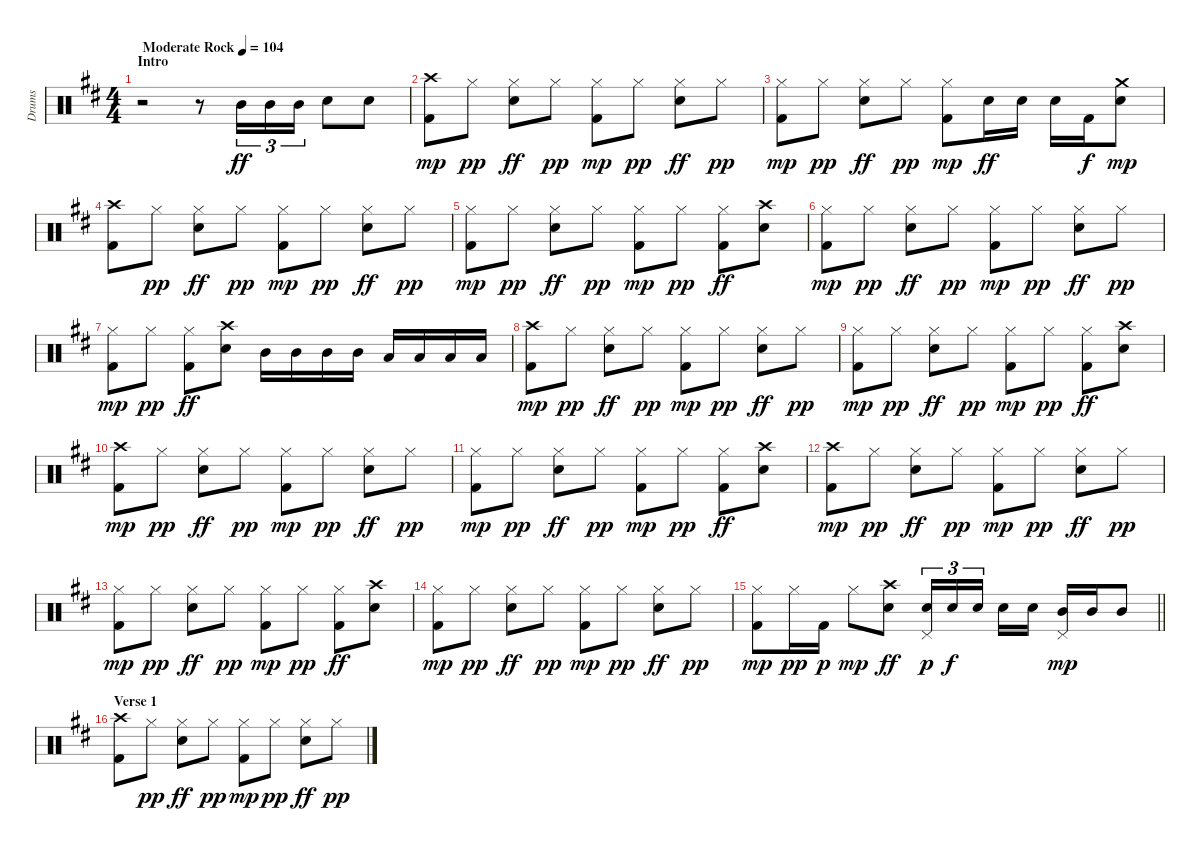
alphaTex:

\track ("Drums" "Drums") {instrument percussion}
\staff {score}
\articulation defaults
\ts (4 4)
\section ("" "Intro")
\tempo (104 "Moderate Rock")
\clef neutral
\ks bminor
r.2{dy ff} r.8 "Mid Tom (hit)".16{tu (3 2)} "Mid Tom (hit)".16{tu (3 2)} "Mid Tom (hit)".16{tu (3 2)} "Electric Snare (hit)".8 "Electric Snare (hit)".8 |
("Crash high (hit)" "Kick (hit) 2").8{dy mp} "Hi-Hat (closed)".8{dy pp} ("Hi-Hat (closed)" "Electric Snare (hit)").8{dy ff} "Hi-Hat (closed)".8{dy pp} ("Hi-Hat (closed)" "Kick (hit) 2").8{dy mp} "Hi-Hat (closed)".8{dy pp} ("Hi-Hat (closed)" "Electric Snare (hit)").8{dy ff} "Hi-Hat (closed)".8{dy pp} |
("Hi-Hat (closed)" "Kick (hit) 2").8{dy mp} "Hi-Hat (closed)".8{dy pp} ("Hi-Hat (closed)" "Electric Snare (hit)").8{dy ff} "Hi-Hat (closed)".8{dy pp} ("Hi-Hat (closed)" "Kick (hit) 2").8{dy mp} "Electric Snare (hit)".16{dy ff} "Electric Snare (hit)".16 "Electric Snare (hit)".16 "Kick (hit) 2".16{dy f} ("Electric Snare (hit)" "Crash medium (hit)").8{dy mp} |
("Crash high (hit)" "Kick (hit) 2").8 "Hi-Hat (closed)".8{dy pp} ("Hi-Hat (closed)" "Electric Snare (hit)").8{dy ff} "Hi-Hat (closed)".8{dy pp} ("Hi-Hat (closed)" "Kick (hit) 2").8{dy mp} "Hi-Hat (closed)".8{dy pp} ("Hi-Hat (closed)" "Electric Snare (hit)").8{dy ff} "Hi-Hat (closed)".8{dy pp} |
("Hi-Hat (closed)" "Kick (hit) 2").8{dy mp} "Hi-Hat (closed)".8{dy pp} ("Hi-Hat (closed)" "Electric Snare (hit)").8{dy ff} "Hi-Hat (closed)".8{dy pp} ("Hi-Hat (closed)" "Kick (hit) 2").8{dy mp} "Hi-Hat (closed)".8{dy pp} ("Hi-Hat (closed)" "Kick (hit) 2").8{dy ff} ("Crash high (hit)" "Electric Snare (hit)").8 |
("Hi-Hat (closed)" "Kick (hit) 2").8{dy mp} "Hi-Hat (closed)".8{dy pp} ("Hi-Hat (closed)" "Electric Snare (hit)").8{dy ff} "Hi-Hat (closed)".8{dy pp} ("Hi-Hat (closed)" "Kick (hit) 2").8{dy mp} "Hi-Hat (closed)".8{dy pp} ("Hi-Hat (closed)" "Electric Snare (hit)").8{dy ff} "Hi-Hat (closed)".8{dy pp} |
("Hi-Hat (closed)" "Kick (hit) 2").8{dy mp} "Hi-Hat (closed)".8{dy pp} ("Hi-Hat (closed)" "Kick (hit) 2").8{dy ff} ("Crash high (hit)" "Electric Snare (hit)").8 "Mid Tom (hit)".16 "Mid Tom (hit)".16 "Mid Tom (hit)".16 "Mid Tom (hit)".16 "Low Tom (hit)".16 "Low Tom (hit)".16 "Low Tom (hit)".16 "Low Tom (hit)".16 |
("Crash high (hit)" "Kick (hit) 2").8{dy mp} "Hi-Hat (closed)".8{dy pp} ("Hi-Hat (closed)" "Electric Snare (hit)").8{dy ff} "Hi-Hat (closed)".8{dy pp} ("Hi-Hat (closed)" "Kick (hit) 2").8{dy mp} "Hi-Hat (closed)".8{dy pp} ("Hi-Hat (closed)" "Electric Snare (hit)").8{dy ff} "Hi-Hat (closed)".8{dy pp} |
("Hi-Hat (closed)" "Kick (hit) 2").8{dy mp} "Hi-Hat (closed)".8{dy pp} ("Hi-Hat (closed)" "Electric Snare (hit)").8{dy ff} "Hi-Hat (closed)".8{dy pp} ("Hi-Hat (closed)" "Kick (hit) 2").8{dy mp} "Hi-Hat (closed)".8{dy pp} ("Hi-Hat (closed)" "Kick (hit) 2").8{dy ff} ("Crash high (hit)" "Electric Snare (hit)").8 |
("Crash high (hit)" "Kick (hit) 2").8{dy mp} "Hi-Hat (closed)".8{dy pp} ("Hi-Hat (closed)" "Electric Snare (hit)").8{dy ff} "Hi-Hat (closed)".8{dy pp} ("Hi-Hat (closed)" "Kick (hit) 2").8{dy mp} "Hi-Hat (closed)".8{dy pp} ("Hi-Hat (closed)" "Electric Snare (hit)").8{dy ff} "Hi-Hat (closed)".8{dy pp} |
("Hi-Hat (closed)" "Kick (hit) 2").8{dy mp} "Hi-Hat (closed)".8{dy pp} ("Hi-Hat (closed)" "Electric Snare (hit)").8{dy ff} "Hi-Hat (closed)".8{dy pp} ("Hi-Hat (closed)" "Kick (hit) 2").8{dy mp} "Hi-Hat (closed)".8{dy pp} ("Hi-Hat (closed)" "Kick (hit) 2").8{dy ff} ("Crash high (hit)" "Electric Snare (hit)").8 |
("Crash high (hit)" "Kick (hit) 2").8{dy mp} "Hi-Hat (closed)".8{dy pp} ("Hi-Hat (closed)" "Electric Snare (hit)").8{dy ff} "Hi-Hat (closed)".8{dy pp} ("Hi-Hat (closed)" "Kick (hit) 2").8{dy mp} "Hi-Hat (closed)".8{dy pp} ("Hi-Hat (closed)" "Electric Snare (hit)").8{dy ff} "Hi-Hat (closed)".8{dy pp} |
("Hi-Hat (closed)" "Kick (hit) 2").8{dy mp} "Hi-Hat (closed)".8{dy pp} ("Hi-Hat (closed)" "Electric Snare (hit)").8{dy ff} "Hi-Hat (closed)".8{dy pp} ("Hi-Hat (closed)" "Kick (hit) 2").8{dy mp} "Hi-Hat (closed)".8{dy pp} ("Hi-Hat (closed)" "Kick (hit) 2").8{dy ff} ("Crash high (hit)" "Electric Snare (hit)").8 |
("Hi-Hat (closed)" "Kick (hit) 2").8{dy mp} "Hi-Hat (closed)".8{dy pp} ("Hi-Hat (closed)" "Electric Snare (hit)").8{dy ff} "Hi-Hat (closed)".8{dy pp} ("Hi-Hat (closed)" "Kick (hit) 2").8{dy mp} "Hi-Hat (closed)".8{dy pp} ("Hi-Hat (closed)" "Electric Snare (hit)").8{dy ff} "Hi-Hat (closed)".8{dy pp} |
\barLineRight lightlight
("Hi-Hat (closed)" "Kick (hit) 2").8{dy mp} "Hi-Hat (closed)".16{dy pp} "Kick (hit) 2".16{dy p} "Hi-Hat (closed)".8{dy mp} ("Crash high (hit)" "Electric Snare (hit)").8{dy ff} ("Electric Snare (hit)" "Pedal Hi-Hat (hit)").16{tu (3 2) dy p} "Electric Snare (hit)".16{tu (3 2) dy f} "Electric Snare (hit)".16{tu (3 2) beam splitsecondary} "Electric Snare (hit)".16 "Electric Snare (hit)".16 ("Mid Tom (hit)" "Pedal Hi-Hat (hit)").16{dy mp} "Mid Tom (hit)".16 "Mid Tom (hit)".8 |
\section ("" "Verse 1")
("Crash high (hit)" "Kick (hit) 2").8 "Hi-Hat (closed)".8{dy pp} ("Hi-Hat (closed)" "Electric Snare (hit)").8{dy ff} "Hi-Hat (closed)".8{dy pp} ("Hi-Hat (closed)" "Kick (hit) 2").8{dy mp} "Hi-Hat (closed)".8{dy pp} ("Hi-Hat (closed)" "Electric Snare (hit)").8{dy ff} "Hi-Hat (closed)".8{dy pp}
